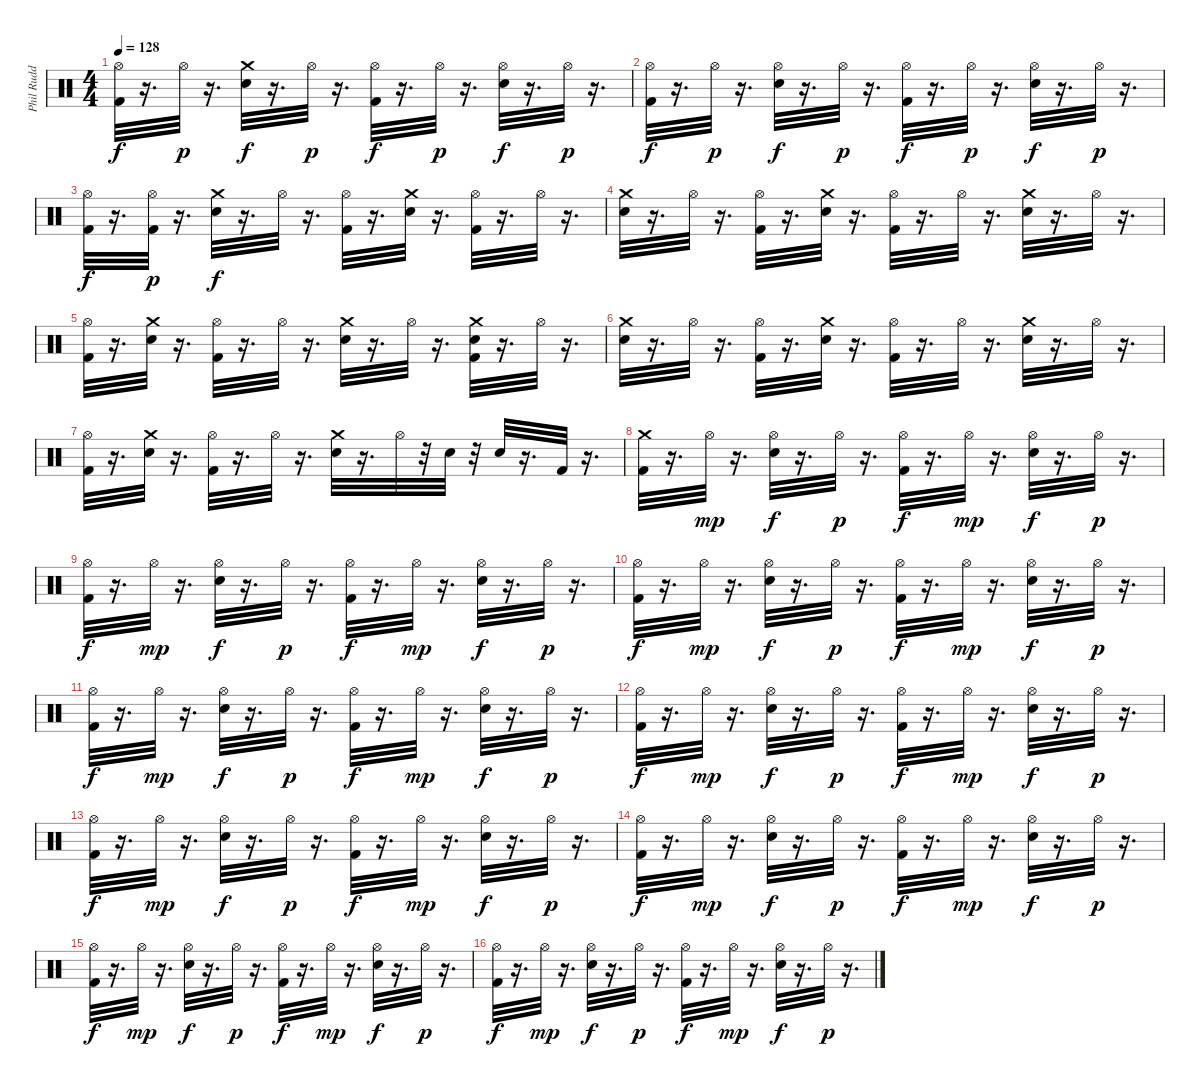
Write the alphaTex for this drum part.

\track ("Phil Rudd" "Phil Rudd") {instrument percussion}
\staff {score}
\articulation defaults
\ts (4 4)
\tempo 128
\clef neutral
\ks c
("Hi-Hat (open)" "Kick (hit) 2").32{dy f} r.16{d} "Hi-Hat (open)".32{dy p} r.16{d} ("Crash medium (hit)" "Electric Snare (hit)").32{dy f} r.16{d} "Hi-Hat (open)".32{dy p} r.16{d} ("Hi-Hat (open)" "Kick (hit) 2").32{dy f} r.16{d} "Hi-Hat (open)".32{dy p} r.16{d} ("Hi-Hat (open)" "Electric Snare (hit)").32{dy f} r.16{d} "Hi-Hat (open)".32{dy p} r.16{d} |
("Hi-Hat (open)" "Kick (hit) 2").32{dy f} r.16{d} "Hi-Hat (open)".32{dy p} r.16{d} ("Hi-Hat (open)" "Electric Snare (hit)").32{dy f} r.16{d} "Hi-Hat (open)".32{dy p} r.16{d} ("Hi-Hat (open)" "Kick (hit) 2").32{dy f} r.16{d} "Hi-Hat (open)".32{dy p} r.16{d} ("Hi-Hat (open)" "Electric Snare (hit)").32{dy f} r.16{d} "Hi-Hat (open)".32{dy p} r.16{d} |
("Hi-Hat (open)" "Kick (hit) 2").32{dy f} r.16{d} ("Kick (hit) 2" "Hi-Hat (open)").32{dy p} r.16{d} ("Crash medium (hit)" "Electric Snare (hit)").32{dy f} r.16{d} "Hi-Hat (open)".32 r.16{d} ("Hi-Hat (open)" "Kick (hit) 2").32 r.16{d} ("Crash medium (hit)" "Electric Snare (hit)").32 r.16{d} ("Hi-Hat (open)" "Kick (hit) 2").32 r.16{d} "Hi-Hat (open)".32 r.16{d} |
("Crash medium (hit)" "Electric Snare (hit)").32 r.16{d} "Hi-Hat (open)".32 r.16{d} ("Hi-Hat (open)" "Kick (hit) 2").32 r.16{d} ("Crash medium (hit)" "Electric Snare (hit)").32 r.16{d} ("Hi-Hat (open)" "Kick (hit) 2").32 r.16{d} "Hi-Hat (open)".32 r.16{d} ("Crash medium (hit)" "Electric Snare (hit)").32 r.16{d} "Hi-Hat (open)".32 r.16{d} |
("Hi-Hat (open)" "Kick (hit) 2").32 r.16{d} ("Crash medium (hit)" "Electric Snare (hit)").32 r.16{d} ("Hi-Hat (open)" "Kick (hit) 2").32 r.16{d} "Hi-Hat (open)".32 r.16{d} ("Crash medium (hit)" "Electric Snare (hit)").32 r.16{d} "Hi-Hat (open)".32 r.16{d} ("Crash medium (hit)" "Kick (hit) 2" "Electric Snare (hit)").32 r.16{d} "Hi-Hat (open)".32 r.16{d} |
("Crash medium (hit)" "Electric Snare (hit)").32 r.16{d} "Hi-Hat (open)".32 r.16{d} ("Hi-Hat (open)" "Kick (hit) 2").32 r.16{d} ("Crash medium (hit)" "Electric Snare (hit)").32 r.16{d} ("Hi-Hat (open)" "Kick (hit) 2").32 r.16{d} "Hi-Hat (open)".32 r.16{d} ("Crash medium (hit)" "Electric Snare (hit)").32 r.16{d} "Hi-Hat (open)".32 r.16{d} |
("Hi-Hat (open)" "Kick (hit) 2").32 r.16{d} ("Crash medium (hit)" "Electric Snare (hit)").32 r.16{d} ("Hi-Hat (open)" "Kick (hit) 2").32 r.16{d} "Hi-Hat (open)".32 r.16{d} ("Crash medium (hit)" "Electric Snare (hit)").32 r.16{d} "Hi-Hat (open)".32 r.32 "Electric Snare (hit)".32 r.32 "Electric Snare (hit)".32 r.16{d} "Kick (hit) 2".32 r.16{d} |
("Crash medium (hit)" "Kick (hit) 2").32 r.16{d} "Hi-Hat (open)".32{dy mp} r.16{d} ("Hi-Hat (open)" "Electric Snare (hit)").32{dy f} r.16{d} "Hi-Hat (open)".32{dy p} r.16{d} ("Hi-Hat (open)" "Kick (hit) 2").32{dy f} r.16{d} "Hi-Hat (open)".32{dy mp} r.16{d} ("Hi-Hat (open)" "Electric Snare (hit)").32{dy f} r.16{d} "Hi-Hat (open)".32{dy p} r.16{d} |
("Hi-Hat (open)" "Kick (hit) 2").32{dy f} r.16{d} "Hi-Hat (open)".32{dy mp} r.16{d} ("Hi-Hat (open)" "Electric Snare (hit)").32{dy f} r.16{d} "Hi-Hat (open)".32{dy p} r.16{d} ("Hi-Hat (open)" "Kick (hit) 2").32{dy f} r.16{d} "Hi-Hat (open)".32{dy mp} r.16{d} ("Hi-Hat (open)" "Electric Snare (hit)").32{dy f} r.16{d} "Hi-Hat (open)".32{dy p} r.16{d} |
("Hi-Hat (open)" "Kick (hit) 2").32{dy f} r.16{d} "Hi-Hat (open)".32{dy mp} r.16{d} ("Hi-Hat (open)" "Electric Snare (hit)").32{dy f} r.16{d} "Hi-Hat (open)".32{dy p} r.16{d} ("Hi-Hat (open)" "Kick (hit) 2").32{dy f} r.16{d} "Hi-Hat (open)".32{dy mp} r.16{d} ("Hi-Hat (open)" "Electric Snare (hit)").32{dy f} r.16{d} "Hi-Hat (open)".32{dy p} r.16{d} |
("Hi-Hat (open)" "Kick (hit) 2").32{dy f} r.16{d} "Hi-Hat (open)".32{dy mp} r.16{d} ("Hi-Hat (open)" "Electric Snare (hit)").32{dy f} r.16{d} "Hi-Hat (open)".32{dy p} r.16{d} ("Hi-Hat (open)" "Kick (hit) 2").32{dy f} r.16{d} "Hi-Hat (open)".32{dy mp} r.16{d} ("Hi-Hat (open)" "Electric Snare (hit)").32{dy f} r.16{d} "Hi-Hat (open)".32{dy p} r.16{d} |
("Hi-Hat (open)" "Kick (hit) 2").32{dy f} r.16{d} "Hi-Hat (open)".32{dy mp} r.16{d} ("Hi-Hat (open)" "Electric Snare (hit)").32{dy f} r.16{d} "Hi-Hat (open)".32{dy p} r.16{d} ("Hi-Hat (open)" "Kick (hit) 2").32{dy f} r.16{d} "Hi-Hat (open)".32{dy mp} r.16{d} ("Hi-Hat (open)" "Electric Snare (hit)").32{dy f} r.16{d} "Hi-Hat (open)".32{dy p} r.16{d} |
("Hi-Hat (open)" "Kick (hit) 2").32{dy f} r.16{d} "Hi-Hat (open)".32{dy mp} r.16{d} ("Hi-Hat (open)" "Electric Snare (hit)").32{dy f} r.16{d} "Hi-Hat (open)".32{dy p} r.16{d} ("Hi-Hat (open)" "Kick (hit) 2").32{dy f} r.16{d} "Hi-Hat (open)".32{dy mp} r.16{d} ("Hi-Hat (open)" "Electric Snare (hit)").32{dy f} r.16{d} "Hi-Hat (open)".32{dy p} r.16{d} |
("Hi-Hat (open)" "Kick (hit) 2").32{dy f} r.16{d} "Hi-Hat (open)".32{dy mp} r.16{d} ("Hi-Hat (open)" "Electric Snare (hit)").32{dy f} r.16{d} "Hi-Hat (open)".32{dy p} r.16{d} ("Hi-Hat (open)" "Kick (hit) 2").32{dy f} r.16{d} "Hi-Hat (open)".32{dy mp} r.16{d} ("Hi-Hat (open)" "Electric Snare (hit)").32{dy f} r.16{d} "Hi-Hat (open)".32{dy p} r.16{d} |
("Hi-Hat (open)" "Kick (hit) 2").32{dy f} r.16{d} "Hi-Hat (open)".32{dy mp} r.16{d} ("Hi-Hat (open)" "Electric Snare (hit)").32{dy f} r.16{d} "Hi-Hat (open)".32{dy p} r.16{d} ("Hi-Hat (open)" "Kick (hit) 2").32{dy f} r.16{d} "Hi-Hat (open)".32{dy mp} r.16{d} ("Hi-Hat (open)" "Electric Snare (hit)").32{dy f} r.16{d} "Hi-Hat (open)".32{dy p} r.16{d} |
("Hi-Hat (open)" "Kick (hit) 2").32{dy f} r.16{d} "Hi-Hat (open)".32{dy mp} r.16{d} ("Hi-Hat (open)" "Electric Snare (hit)").32{dy f} r.16{d} "Hi-Hat (open)".32{dy p} r.16{d} ("Hi-Hat (open)" "Kick (hit) 2").32{dy f} r.16{d} "Hi-Hat (open)".32{dy mp} r.16{d} ("Hi-Hat (open)" "Electric Snare (hit)").32{dy f} r.16{d} "Hi-Hat (open)".32{dy p} r.16{d}
